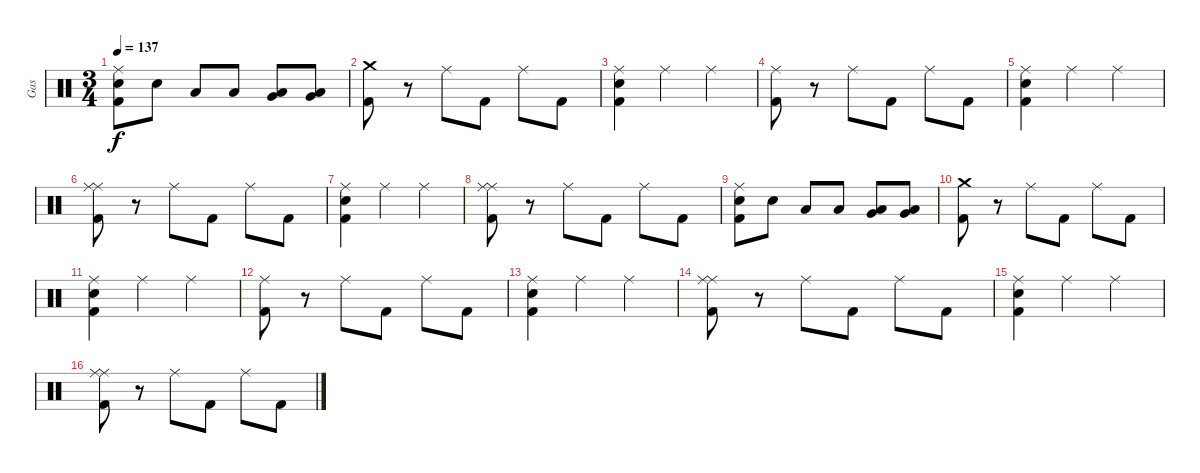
\track ("Gas" "Gas") {instrument percussion}
\staff {score}
\articulation defaults
\ts (3 4)
\tempo 137
\clef neutral
\ks c
("Ride (middle)" "Snare (hit) 2" "Kick (hit) 2").8{dy f} "Snare (hit) 2".8 "Low Tom (hit)".8 "Low Tom (hit)".8 ("Low Tom (hit)" "Very Low Tom (hit)").8{bd 60} ("Low Tom (hit)" "Very Low Tom (hit)").8{bd 60} |
("Crash medium (hit)" "Kick (hit) 2").8 r.8 "Ride (middle)".8 "Kick (hit) 2".8 "Ride (middle)".8 "Kick (hit) 2".8 |
("Ride (middle)" "Snare (hit) 2" "Kick (hit) 2").4 "Ride (middle)".4 "Ride (middle)".4 |
("Ride (middle)" "Kick (hit) 2").8 r.8 "Ride (middle)".8 "Kick (hit) 2".8 "Ride (middle)".8 "Kick (hit) 2".8 |
("Ride (middle)" "Snare (hit) 2" "Kick (hit) 2").4 "Ride (middle)".4 "Ride (middle)".4 |
("Ride (middle)" "Ride (middle)" "Kick (hit) 2").8 r.8 "Ride (middle)".8 "Kick (hit) 2".8 "Ride (middle)".8 "Kick (hit) 2".8 |
("Ride (middle)" "Snare (hit) 2" "Kick (hit) 2").4 "Ride (middle)".4 "Ride (middle)".4 |
("Ride (middle)" "Ride (middle)" "Kick (hit) 2").8 r.8 "Ride (middle)".8 "Kick (hit) 2".8 "Ride (middle)".8 "Kick (hit) 2".8 |
("Ride (middle)" "Snare (hit) 2" "Kick (hit) 2").8 "Snare (hit) 2".8 "Low Tom (hit)".8 "Low Tom (hit)".8 ("Low Tom (hit)" "Very Low Tom (hit)").8{bd 60} ("Low Tom (hit)" "Very Low Tom (hit)").8{bd 60} |
("Crash medium (hit)" "Kick (hit) 2").8 r.8 "Ride (middle)".8 "Kick (hit) 2".8 "Ride (middle)".8 "Kick (hit) 2".8 |
("Ride (middle)" "Snare (hit) 2" "Kick (hit) 2").4 "Ride (middle)".4 "Ride (middle)".4 |
("Ride (middle)" "Kick (hit) 2").8 r.8 "Ride (middle)".8 "Kick (hit) 2".8 "Ride (middle)".8 "Kick (hit) 2".8 |
("Ride (middle)" "Snare (hit) 2" "Kick (hit) 2").4 "Ride (middle)".4 "Ride (middle)".4 |
("Ride (middle)" "Ride (middle)" "Kick (hit) 2").8 r.8 "Ride (middle)".8 "Kick (hit) 2".8 "Ride (middle)".8 "Kick (hit) 2".8 |
("Ride (middle)" "Snare (hit) 2" "Kick (hit) 2").4 "Ride (middle)".4 "Ride (middle)".4 |
("Ride (middle)" "Ride (middle)" "Kick (hit) 2").8 r.8 "Ride (middle)".8 "Kick (hit) 2".8 "Ride (middle)".8 "Kick (hit) 2".8
